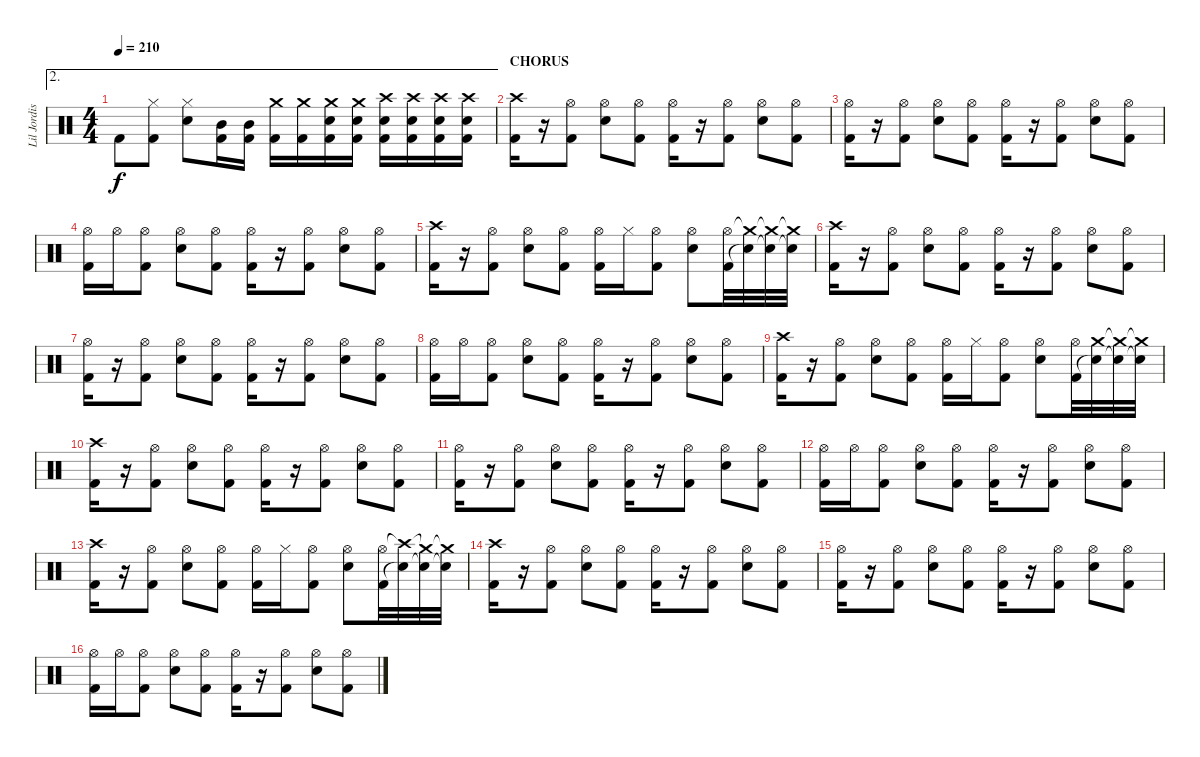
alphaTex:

\track ("Lil Jordison" "Lil Jordis") {instrument percussion}
\staff {score}
\articulation defaults
\ae 2
\ts (4 4)
\tempo 210
\clef neutral
\ks c "Kick (hit) 2".8{dy f}
("Hi-Hat (closed)" "Kick (hit) 2").8 ("Hi-Hat (closed)" "Electric Snare (hit)").8 ("Mid Tom (hit)" "Kick (hit) 2").16 ("Mid Tom (hit)" "Kick (hit) 2").16 ("Crash medium (hit)" "Kick (hit) 2").16 ("Crash medium (hit)" "Kick (hit) 2").16 ("Crash medium (hit)" "Electric Snare (hit)" "Kick (hit) 2").16 ("Crash medium (hit)" "Electric Snare (hit)" "Kick (hit) 2").16 ("Crash high (hit)" "Electric Snare (hit)" "Kick (hit) 2").16 ("Crash high (hit)" "Electric Snare (hit)" "Kick (hit) 2").16 ("Crash high (hit)" "Electric Snare (hit)" "Kick (hit) 2").16 ("Crash high (hit)" "Electric Snare (hit)" "Kick (hit) 2").16 |
\section ("" "CHORUS")
("Crash high (hit)" "Kick (hit) 2").16 r.16 ("Hi-Hat (open)" "Kick (hit) 2").8 ("Hi-Hat (open)" "Electric Snare (hit)").8 ("Hi-Hat (open)" "Kick (hit) 2").8 ("Hi-Hat (open)" "Kick (hit) 2").16 r.16 ("Hi-Hat (open)" "Kick (hit) 2").8 ("Hi-Hat (open)" "Electric Snare (hit)").8 ("Hi-Hat (open)" "Kick (hit) 2").8 |
("Hi-Hat (open)" "Kick (hit) 2").16 r.16 ("Hi-Hat (open)" "Kick (hit) 2").8 ("Hi-Hat (open)" "Electric Snare (hit)").8 ("Hi-Hat (open)" "Kick (hit) 2").8 ("Hi-Hat (open)" "Kick (hit) 2").16 r.16 ("Hi-Hat (open)" "Kick (hit) 2").8 ("Hi-Hat (open)" "Electric Snare (hit)").8 ("Hi-Hat (open)" "Kick (hit) 2").8 |
("Hi-Hat (open)" "Kick (hit) 2").16 "Hi-Hat (open)".16 ("Hi-Hat (open)" "Kick (hit) 2").8 ("Hi-Hat (open)" "Electric Snare (hit)").8 ("Hi-Hat (open)" "Kick (hit) 2").8 ("Hi-Hat (open)" "Kick (hit) 2").16 r.16 ("Hi-Hat (open)" "Kick (hit) 2").8 ("Hi-Hat (open)" "Electric Snare (hit)").8 ("Hi-Hat (open)" "Kick (hit) 2").8 |
("Crash high (hit)" "Kick (hit) 2").16 r.16 ("Hi-Hat (open)" "Kick (hit) 2").8 ("Hi-Hat (open)" "Electric Snare (hit)").8 ("Hi-Hat (open)" "Kick (hit) 2").8 ("Hi-Hat (open)" "Kick (hit) 2").16 "Hi-Hat (closed)".16 ("Hi-Hat (open)" "Kick (hit) 2").8 ("Hi-Hat (open)" "Electric Snare (hit)").8 ("Hi-Hat (open)" "Kick (hit) 2").32 ("Crash medium (hit)"{t} "Electric Snare (hit)"{t}).32 ("Crash medium (hit)"{t} "Electric Snare (hit)"{t}).32 ("Crash medium (hit)"{t} "Electric Snare (hit)"{t}).32 |
("Crash high (hit)" "Kick (hit) 2").16 r.16 ("Hi-Hat (open)" "Kick (hit) 2").8 ("Hi-Hat (open)" "Electric Snare (hit)").8 ("Hi-Hat (open)" "Kick (hit) 2").8 ("Hi-Hat (open)" "Kick (hit) 2").16 r.16 ("Hi-Hat (open)" "Kick (hit) 2").8 ("Hi-Hat (open)" "Electric Snare (hit)").8 ("Hi-Hat (open)" "Kick (hit) 2").8 |
("Hi-Hat (open)" "Kick (hit) 2").16 r.16 ("Hi-Hat (open)" "Kick (hit) 2").8 ("Hi-Hat (open)" "Electric Snare (hit)").8 ("Hi-Hat (open)" "Kick (hit) 2").8 ("Hi-Hat (open)" "Kick (hit) 2").16 r.16 ("Hi-Hat (open)" "Kick (hit) 2").8 ("Hi-Hat (open)" "Electric Snare (hit)").8 ("Hi-Hat (open)" "Kick (hit) 2").8 |
("Hi-Hat (open)" "Kick (hit) 2").16 "Hi-Hat (open)".16 ("Hi-Hat (open)" "Kick (hit) 2").8 ("Hi-Hat (open)" "Electric Snare (hit)").8 ("Hi-Hat (open)" "Kick (hit) 2").8 ("Hi-Hat (open)" "Kick (hit) 2").16 r.16 ("Hi-Hat (open)" "Kick (hit) 2").8 ("Hi-Hat (open)" "Electric Snare (hit)").8 ("Hi-Hat (open)" "Kick (hit) 2").8 |
("Crash high (hit)" "Kick (hit) 2").16 r.16 ("Hi-Hat (open)" "Kick (hit) 2").8 ("Hi-Hat (open)" "Electric Snare (hit)").8 ("Hi-Hat (open)" "Kick (hit) 2").8 ("Hi-Hat (open)" "Kick (hit) 2").16 "Hi-Hat (closed)".16 ("Hi-Hat (open)" "Kick (hit) 2").8 ("Hi-Hat (open)" "Electric Snare (hit)").8 ("Hi-Hat (open)" "Kick (hit) 2").32 ("Crash medium (hit)" "Electric Snare (hit)"{t}).32 ("Crash medium (hit)"{t} "Electric Snare (hit)"{t}).32 ("Crash medium (hit)"{t} "Electric Snare (hit)"{t}).32 |
("Crash high (hit)" "Kick (hit) 2").16 r.16 ("Hi-Hat (open)" "Kick (hit) 2").8 ("Hi-Hat (open)" "Electric Snare (hit)").8 ("Hi-Hat (open)" "Kick (hit) 2").8 ("Hi-Hat (open)" "Kick (hit) 2").16 r.16 ("Hi-Hat (open)" "Kick (hit) 2").8 ("Hi-Hat (open)" "Electric Snare (hit)").8 ("Hi-Hat (open)" "Kick (hit) 2").8 |
("Hi-Hat (open)" "Kick (hit) 2").16 r.16 ("Hi-Hat (open)" "Kick (hit) 2").8 ("Hi-Hat (open)" "Electric Snare (hit)").8 ("Hi-Hat (open)" "Kick (hit) 2").8 ("Hi-Hat (open)" "Kick (hit) 2").16 r.16 ("Hi-Hat (open)" "Kick (hit) 2").8 ("Hi-Hat (open)" "Electric Snare (hit)").8 ("Hi-Hat (open)" "Kick (hit) 2").8 |
("Hi-Hat (open)" "Kick (hit) 2").16 "Hi-Hat (open)".16 ("Hi-Hat (open)" "Kick (hit) 2").8 ("Hi-Hat (open)" "Electric Snare (hit)").8 ("Hi-Hat (open)" "Kick (hit) 2").8 ("Hi-Hat (open)" "Kick (hit) 2").16 r.16 ("Hi-Hat (open)" "Kick (hit) 2").8 ("Hi-Hat (open)" "Electric Snare (hit)").8 ("Hi-Hat (open)" "Kick (hit) 2").8 |
("Crash high (hit)" "Kick (hit) 2").16 r.16 ("Hi-Hat (open)" "Kick (hit) 2").8 ("Hi-Hat (open)" "Electric Snare (hit)").8 ("Hi-Hat (open)" "Kick (hit) 2").8 ("Hi-Hat (open)" "Kick (hit) 2").16 "Hi-Hat (closed)".16 ("Hi-Hat (open)" "Kick (hit) 2").8 ("Hi-Hat (open)" "Electric Snare (hit)").8 ("Hi-Hat (open)" "Kick (hit) 2").32 ("Crash high (hit)"{t} "Electric Snare (hit)"{t}).32 ("Crash medium (hit)"{t} "Electric Snare (hit)"{t}).32 ("Crash medium (hit)"{t} "Electric Snare (hit)"{t}).32 |
("Crash high (hit)" "Kick (hit) 2").16 r.16 ("Hi-Hat (open)" "Kick (hit) 2").8 ("Hi-Hat (open)" "Electric Snare (hit)").8 ("Hi-Hat (open)" "Kick (hit) 2").8 ("Hi-Hat (open)" "Kick (hit) 2").16 r.16 ("Hi-Hat (open)" "Kick (hit) 2").8 ("Hi-Hat (open)" "Electric Snare (hit)").8 ("Hi-Hat (open)" "Kick (hit) 2").8 |
("Hi-Hat (open)" "Kick (hit) 2").16 r.16 ("Hi-Hat (open)" "Kick (hit) 2").8 ("Hi-Hat (open)" "Electric Snare (hit)").8 ("Hi-Hat (open)" "Kick (hit) 2").8 ("Hi-Hat (open)" "Kick (hit) 2").16 r.16 ("Hi-Hat (open)" "Kick (hit) 2").8 ("Hi-Hat (open)" "Electric Snare (hit)").8 ("Hi-Hat (open)" "Kick (hit) 2").8 |
("Hi-Hat (open)" "Kick (hit) 2").16 "Hi-Hat (open)".16 ("Hi-Hat (open)" "Kick (hit) 2").8 ("Hi-Hat (open)" "Electric Snare (hit)").8 ("Hi-Hat (open)" "Kick (hit) 2").8 ("Hi-Hat (open)" "Kick (hit) 2").16 r.16 ("Hi-Hat (open)" "Kick (hit) 2").8 ("Hi-Hat (open)" "Electric Snare (hit)").8 ("Hi-Hat (open)" "Kick (hit) 2").8
